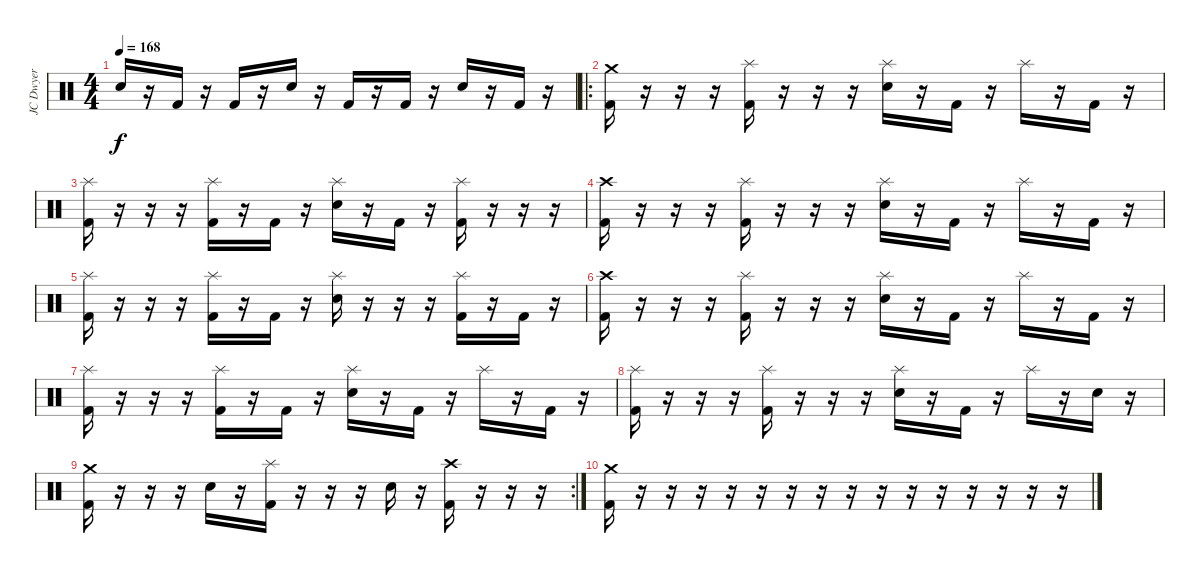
\track ("JC Dwyer" "JC Dwyer") {instrument percussion}
\staff {score}
\articulation defaults
\ts (4 4)
\tempo 168
\clef neutral
\ks c "Electric Snare (hit)".16{dy f}
r.16 "Kick (hit) 2".16 r.16 "Kick (hit) 2".16 r.16 "Electric Snare (hit)".16 r.16 "Kick (hit) 2".16 r.16 "Kick (hit) 2".16 r.16 "Electric Snare (hit)".16 r.16 "Kick (hit) 2".16 r.16 |
\ro
("Crash medium (hit)" "Kick (hit) 2").16 r.16 r.16 r.16 ("Splash (hit)" "Kick (hit) 2").16 r.16 r.16 r.16 ("Splash (hit)" "Electric Snare (hit)").16 r.16 "Kick (hit) 2".16 r.16 "Splash (hit)".16 r.16 "Kick (hit) 2".16 r.16 |
("Splash (hit)" "Kick (hit) 2").16 r.16 r.16 r.16 ("Splash (hit)" "Kick (hit) 2").16 r.16 "Kick (hit) 2".16 r.16 ("Splash (hit)" "Electric Snare (hit)").16 r.16 "Kick (hit) 2".16 r.16 ("Splash (hit)" "Kick (hit) 2").16 r.16 r.16 r.16 |
("Crash high (hit)" "Kick (hit) 2").16 r.16 r.16 r.16 ("Splash (hit)" "Kick (hit) 2").16 r.16 r.16 r.16 ("Splash (hit)" "Electric Snare (hit)").16 r.16 "Kick (hit) 2".16 r.16 "Splash (hit)".16 r.16 "Kick (hit) 2".16 r.16 |
("Splash (hit)" "Kick (hit) 2").16 r.16 r.16 r.16 ("Splash (hit)" "Kick (hit) 2").16 r.16 "Kick (hit) 2".16 r.16 ("Splash (hit)" "Electric Snare (hit)").16 r.16 r.16 r.16 ("Splash (hit)" "Kick (hit) 2").16 r.16 "Kick (hit) 2".16 r.16 |
("Crash high (hit)" "Kick (hit) 2").16 r.16 r.16 r.16 ("Splash (hit)" "Kick (hit) 2").16 r.16 r.16 r.16 ("Splash (hit)" "Electric Snare (hit)").16 r.16 "Kick (hit) 2".16 r.16 "Splash (hit)".16 r.16 "Kick (hit) 2".16 r.16 |
("Splash (hit)" "Kick (hit) 2").16 r.16 r.16 r.16 ("Splash (hit)" "Kick (hit) 2").16 r.16 "Kick (hit) 2".16 r.16 ("Splash (hit)" "Electric Snare (hit)").16 r.16 "Kick (hit) 2".16 r.16 "Splash (hit)".16 r.16 "Kick (hit) 2".16 r.16 |
("Splash (hit)" "Kick (hit) 2").16 r.16 r.16 r.16 ("Splash (hit)" "Kick (hit) 2").16 r.16 r.16 r.16 ("Splash (hit)" "Electric Snare (hit)").16 r.16 "Kick (hit) 2".16 r.16 "Splash (hit)".16 r.16 "Electric Snare (hit)".16 r.16 |
\rc 2
("Crash medium (hit)" "Kick (hit) 2").16 r.16 r.16 r.16 "Electric Snare (hit)".16 r.16 ("Splash (hit)" "Kick (hit) 2").16 r.16 r.16 r.16 "Electric Snare (hit)".16 r.16 ("Crash high (hit)" "Kick (hit) 2").16 r.16 r.16 r.16 |
("Crash medium (hit)" "Kick (hit) 2").16 r.16 r.16 r.16 r.16 r.16 r.16 r.16 r.16 r.16 r.16 r.16 r.16 r.16 r.16 r.16
